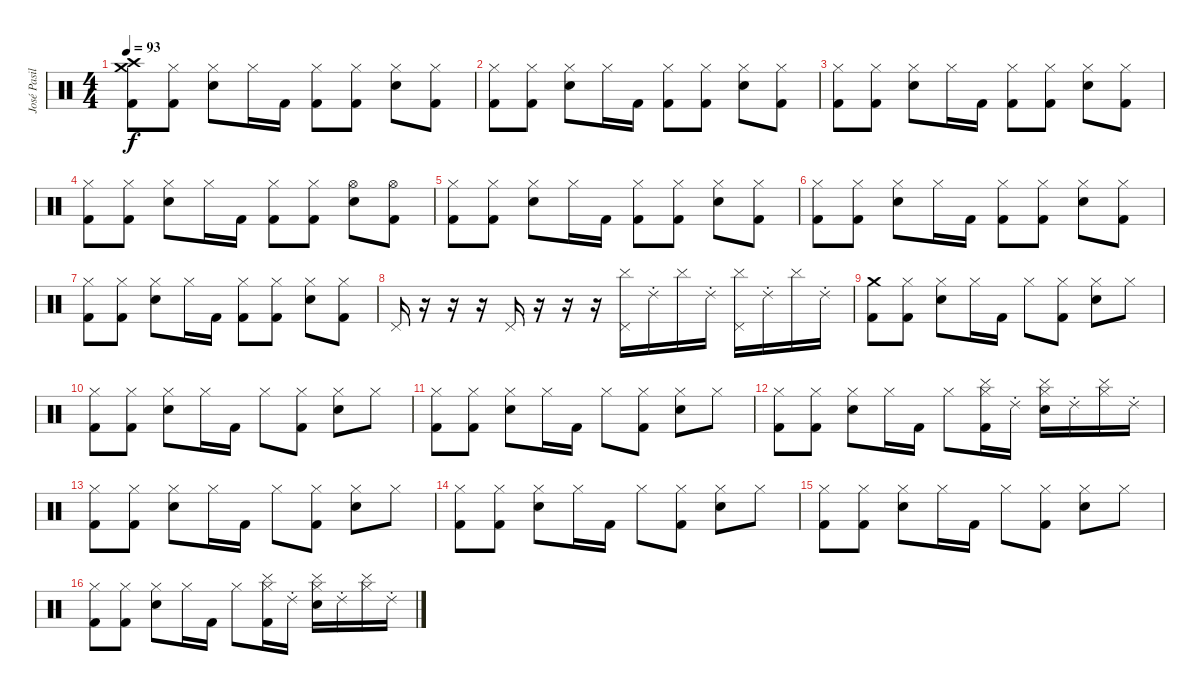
\track ("José Pasillas/DJ Kilmore" "José Pasil") {instrument percussion}
\staff {score}
\articulation defaults
\ts (4 4)
\tempo 93
\clef neutral
\ks c
("Crash high (hit)" "Crash medium (hit)" "Kick (hit) 2").8{dy f} ("Hi-Hat (closed)" "Kick (hit) 2").8 ("Hi-Hat (closed)" "Electric Snare (hit)").8 "Hi-Hat (closed)".16 "Kick (hit) 2".16 ("Hi-Hat (closed)" "Kick (hit) 2").8 ("Hi-Hat (closed)" "Kick (hit) 2").8 ("Hi-Hat (closed)" "Electric Snare (hit)").8 ("Hi-Hat (closed)" "Kick (hit) 2").8 |
("Hi-Hat (closed)" "Kick (hit) 2").8 ("Hi-Hat (closed)" "Kick (hit) 2").8 ("Hi-Hat (closed)" "Electric Snare (hit)").8 "Hi-Hat (closed)".16 "Kick (hit) 2".16 ("Hi-Hat (closed)" "Kick (hit) 2").8 ("Hi-Hat (closed)" "Kick (hit) 2").8 ("Hi-Hat (closed)" "Electric Snare (hit)").8 ("Hi-Hat (closed)" "Kick (hit) 2").8 |
("Hi-Hat (closed)" "Kick (hit) 2").8 ("Hi-Hat (closed)" "Kick (hit) 2").8 ("Hi-Hat (closed)" "Electric Snare (hit)").8 "Hi-Hat (closed)".16 "Kick (hit) 2".16 ("Hi-Hat (closed)" "Kick (hit) 2").8 ("Hi-Hat (closed)" "Kick (hit) 2").8 ("Hi-Hat (closed)" "Electric Snare (hit)").8 ("Hi-Hat (closed)" "Kick (hit) 2").8 |
("Hi-Hat (closed)" "Kick (hit) 2").8 ("Hi-Hat (closed)" "Kick (hit) 2").8 ("Hi-Hat (closed)" "Electric Snare (hit)").8 "Hi-Hat (closed)".16 "Kick (hit) 2".16 ("Hi-Hat (closed)" "Kick (hit) 2").8 ("Hi-Hat (closed)" "Kick (hit) 2").8 ("Hi-Hat (open)" "Electric Snare (hit)").8 ("Hi-Hat (open)" "Kick (hit) 2").8 |
("Hi-Hat (closed)" "Kick (hit) 2").8 ("Hi-Hat (closed)" "Kick (hit) 2").8 ("Hi-Hat (closed)" "Electric Snare (hit)").8 "Hi-Hat (closed)".16 "Kick (hit) 2".16 ("Hi-Hat (closed)" "Kick (hit) 2").8 ("Hi-Hat (closed)" "Kick (hit) 2").8 ("Hi-Hat (closed)" "Electric Snare (hit)").8 ("Hi-Hat (closed)" "Kick (hit) 2").8 |
("Hi-Hat (closed)" "Kick (hit) 2").8 ("Hi-Hat (closed)" "Kick (hit) 2").8 ("Hi-Hat (closed)" "Electric Snare (hit)").8 "Hi-Hat (closed)".16 "Kick (hit) 2".16 ("Hi-Hat (closed)" "Kick (hit) 2").8 ("Hi-Hat (closed)" "Kick (hit) 2").8 ("Hi-Hat (closed)" "Electric Snare (hit)").8 ("Hi-Hat (closed)" "Kick (hit) 2").8 |
("Hi-Hat (closed)" "Kick (hit) 2").8 ("Hi-Hat (closed)" "Kick (hit) 2").8 ("Hi-Hat (closed)" "Electric Snare (hit)").8 "Hi-Hat (closed)".16 "Kick (hit) 2".16 ("Hi-Hat (closed)" "Kick (hit) 2").8 ("Hi-Hat (closed)" "Kick (hit) 2").8 ("Hi-Hat (closed)" "Electric Snare (hit)").8 ("Hi-Hat (closed)" "Kick (hit) 2").8 |
"Pedal Hi-Hat (hit)".16 r.16 r.16 r.16 "Pedal Hi-Hat (hit)".16 r.16 r.16 r.16 ("Cymbal (hit)" "Pedal Hi-Hat (hit)").16 "Ride (choke) 2".16 "Cymbal (hit)".16 "Ride (choke) 2".16 ("Cymbal (hit)" "Pedal Hi-Hat (hit)").16 "Ride (choke) 2".16 "Cymbal (hit)".16 "Ride (choke) 2".16 |
("Crash medium (hit)" "Kick (hit) 2").8 ("Hi-Hat (closed)" "Kick (hit) 2").8 ("Hi-Hat (closed)" "Electric Snare (hit)").8 "Hi-Hat (closed)".16 "Kick (hit) 2".16 "Hi-Hat (closed)".8 ("Hi-Hat (closed)" "Kick (hit) 2").8 ("Hi-Hat (closed)" "Electric Snare (hit)").8 "Hi-Hat (closed)".8 |
("Hi-Hat (closed)" "Kick (hit) 2").8 ("Hi-Hat (closed)" "Kick (hit) 2").8 ("Hi-Hat (closed)" "Electric Snare (hit)").8 "Hi-Hat (closed)".16 "Kick (hit) 2".16 "Hi-Hat (closed)".8 ("Hi-Hat (closed)" "Kick (hit) 2").8 ("Hi-Hat (closed)" "Electric Snare (hit)").8 "Hi-Hat (closed)".8 |
("Hi-Hat (closed)" "Kick (hit) 2").8 ("Hi-Hat (closed)" "Kick (hit) 2").8 ("Hi-Hat (closed)" "Electric Snare (hit)").8 "Hi-Hat (closed)".16 "Kick (hit) 2".16 "Hi-Hat (closed)".8 ("Hi-Hat (closed)" "Kick (hit) 2").8 ("Hi-Hat (closed)" "Electric Snare (hit)").8 "Hi-Hat (closed)".8 |
("Hi-Hat (closed)" "Kick (hit) 2").8 ("Hi-Hat (closed)" "Kick (hit) 2").8 ("Hi-Hat (closed)" "Electric Snare (hit)").8 "Hi-Hat (closed)".16 "Kick (hit) 2".16 "Hi-Hat (closed)".8 ("Hi-Hat (closed)" "Cymbal (hit)" "Kick (hit) 2").16 "Ride (choke) 2".16 ("Hi-Hat (closed)" "Cymbal (hit)" "Electric Snare (hit)").16 "Ride (choke) 2".16 ("Hi-Hat (closed)" "Cymbal (hit)").16 "Ride (choke) 2".16 |
("Hi-Hat (closed)" "Kick (hit) 2").8 ("Hi-Hat (closed)" "Kick (hit) 2").8 ("Hi-Hat (closed)" "Electric Snare (hit)").8 "Hi-Hat (closed)".16 "Kick (hit) 2".16 "Hi-Hat (closed)".8 ("Hi-Hat (closed)" "Kick (hit) 2").8 ("Hi-Hat (closed)" "Electric Snare (hit)").8 "Hi-Hat (closed)".8 |
("Hi-Hat (closed)" "Kick (hit) 2").8 ("Hi-Hat (closed)" "Kick (hit) 2").8 ("Hi-Hat (closed)" "Electric Snare (hit)").8 "Hi-Hat (closed)".16 "Kick (hit) 2".16 "Hi-Hat (closed)".8 ("Hi-Hat (closed)" "Kick (hit) 2").8 ("Hi-Hat (closed)" "Electric Snare (hit)").8 "Hi-Hat (closed)".8 |
("Hi-Hat (closed)" "Kick (hit) 2").8 ("Hi-Hat (closed)" "Kick (hit) 2").8 ("Hi-Hat (closed)" "Electric Snare (hit)").8 "Hi-Hat (closed)".16 "Kick (hit) 2".16 "Hi-Hat (closed)".8 ("Hi-Hat (closed)" "Kick (hit) 2").8 ("Hi-Hat (closed)" "Electric Snare (hit)").8 "Hi-Hat (closed)".8 |
("Hi-Hat (closed)" "Kick (hit) 2").8 ("Hi-Hat (closed)" "Kick (hit) 2").8 ("Hi-Hat (closed)" "Electric Snare (hit)").8 "Hi-Hat (closed)".16 "Kick (hit) 2".16 "Hi-Hat (closed)".8 ("Hi-Hat (closed)" "Cymbal (hit)" "Kick (hit) 2").16 "Ride (choke) 2".16 ("Hi-Hat (closed)" "Cymbal (hit)" "Electric Snare (hit)").16 "Ride (choke) 2".16 ("Hi-Hat (closed)" "Cymbal (hit)").16 "Ride (choke) 2".16
